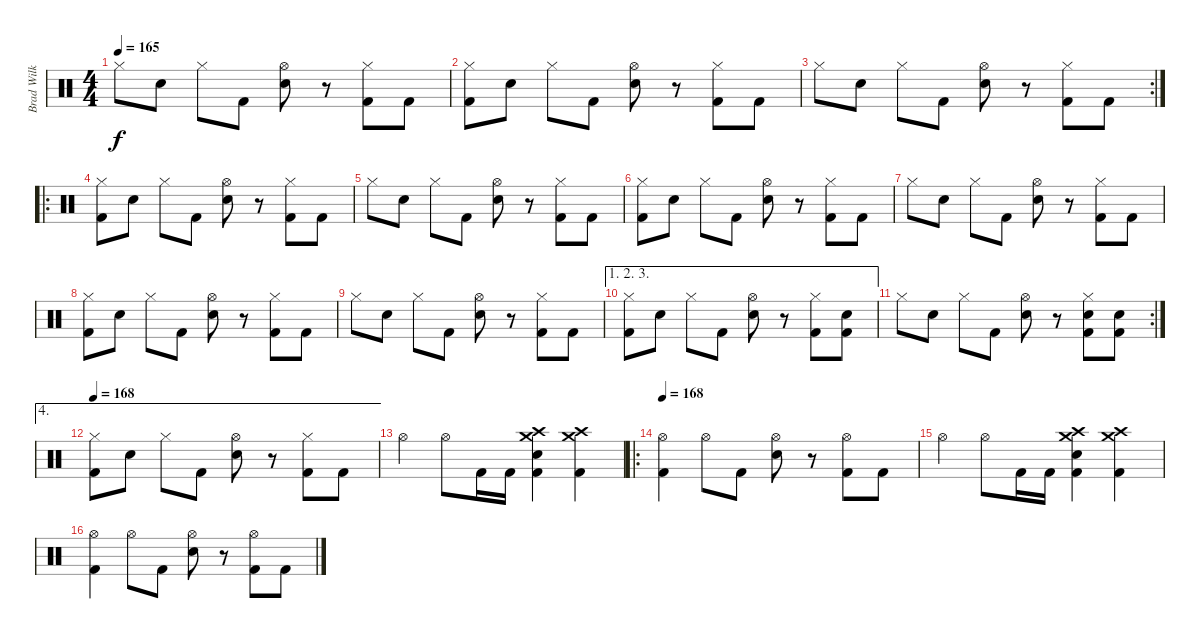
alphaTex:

\track ("Brad Wilk" "Brad Wilk") {instrument percussion}
\staff {score}
\articulation defaults
\ts (4 4)
\tempo 165
\clef neutral
\ks c "Hi-Hat (closed)".8{dy f} "Electric Snare (hit)".8 "Hi-Hat (closed)".8 "Kick (hit) 2".8
("Hi-Hat (open)" "Electric Snare (hit)").8 r.8 ("Hi-Hat (closed)" "Kick (hit) 2").8 "Kick (hit) 2".8 |
("Hi-Hat (closed)" "Kick (hit) 2").8 "Electric Snare (hit)".8 "Hi-Hat (closed)".8 "Kick (hit) 2".8 ("Hi-Hat (open)" "Electric Snare (hit)").8 r.8 ("Hi-Hat (closed)" "Kick (hit) 2").8 "Kick (hit) 2".8 |
\rc 2 "Hi-Hat (closed)".8 "Electric Snare (hit)".8 "Hi-Hat (closed)".8 "Kick (hit) 2".8
("Hi-Hat (open)" "Electric Snare (hit)").8 r.8 ("Hi-Hat (closed)" "Kick (hit) 2").8 "Kick (hit) 2".8 |
\ro
("Hi-Hat (closed)" "Kick (hit) 2").8 "Electric Snare (hit)".8 "Hi-Hat (closed)".8 "Kick (hit) 2".8 ("Hi-Hat (open)" "Electric Snare (hit)").8 r.8 ("Hi-Hat (closed)" "Kick (hit) 2").8 "Kick (hit) 2".8 |
"Hi-Hat (closed)".8 "Electric Snare (hit)".8 "Hi-Hat (closed)".8 "Kick (hit) 2".8 ("Hi-Hat (open)" "Electric Snare (hit)").8 r.8 ("Hi-Hat (closed)" "Kick (hit) 2").8 "Kick (hit) 2".8 |
("Hi-Hat (closed)" "Kick (hit) 2").8 "Electric Snare (hit)".8 "Hi-Hat (closed)".8 "Kick (hit) 2".8 ("Hi-Hat (open)" "Electric Snare (hit)").8 r.8 ("Hi-Hat (closed)" "Kick (hit) 2").8 "Kick (hit) 2".8 |
"Hi-Hat (closed)".8 "Electric Snare (hit)".8 "Hi-Hat (closed)".8 "Kick (hit) 2".8 ("Hi-Hat (open)" "Electric Snare (hit)").8 r.8 ("Hi-Hat (closed)" "Kick (hit) 2").8 "Kick (hit) 2".8 |
("Hi-Hat (closed)" "Kick (hit) 2").8 "Electric Snare (hit)".8 "Hi-Hat (closed)".8 "Kick (hit) 2".8 ("Hi-Hat (open)" "Electric Snare (hit)").8 r.8 ("Hi-Hat (closed)" "Kick (hit) 2").8 "Kick (hit) 2".8 |
"Hi-Hat (closed)".8 "Electric Snare (hit)".8 "Hi-Hat (closed)".8 "Kick (hit) 2".8 ("Hi-Hat (open)" "Electric Snare (hit)").8 r.8 ("Hi-Hat (closed)" "Kick (hit) 2").8 "Kick (hit) 2".8 |
\ae (1 2 3)
("Hi-Hat (closed)" "Kick (hit) 2").8 "Electric Snare (hit)".8 "Hi-Hat (closed)".8 "Kick (hit) 2".8 ("Hi-Hat (open)" "Electric Snare (hit)").8 r.8 ("Hi-Hat (closed)" "Kick (hit) 2").8 ("Electric Snare (hit)" "Kick (hit) 2").8 |
\rc 2 "Hi-Hat (closed)".8 "Electric Snare (hit)".8 "Hi-Hat (closed)".8 "Kick (hit) 2".8
("Hi-Hat (open)" "Electric Snare (hit)").8 r.8 ("Hi-Hat (closed)" "Electric Snare (hit)" "Kick (hit) 2").8 ("Electric Snare (hit)" "Kick (hit) 2").8 |
\ae 4
\tempo 168
("Hi-Hat (closed)" "Kick (hit) 2").8 "Electric Snare (hit)".8 "Hi-Hat (closed)".8 "Kick (hit) 2".8 ("Hi-Hat (open)" "Electric Snare (hit)").8 r.8 ("Hi-Hat (closed)" "Kick (hit) 2").8 "Kick (hit) 2".8 |
"Hi-Hat (open)".4 "Hi-Hat (open)".8 "Kick (hit) 2".16 "Kick (hit) 2".16 ("Crash medium (hit)" "Crash high (hit)" "Electric Snare (hit)" "Kick (hit) 2").4 ("Crash high (hit)" "Crash medium (hit)" "Kick (hit) 2").4 |
\ro
\tempo 168
("Hi-Hat (open)" "Kick (hit) 2").4 "Hi-Hat (open)".8 "Kick (hit) 2".8 ("Hi-Hat (open)" "Electric Snare (hit)").8 r.8 ("Hi-Hat (open)" "Kick (hit) 2").8 "Kick (hit) 2".8 |
"Hi-Hat (open)".4 "Hi-Hat (open)".8 "Kick (hit) 2".16 "Kick (hit) 2".16 ("Crash medium (hit)" "Crash high (hit)" "Electric Snare (hit)" "Kick (hit) 2").4 ("Crash high (hit)" "Crash medium (hit)" "Kick (hit) 2").4 |
("Hi-Hat (open)" "Kick (hit) 2").4 "Hi-Hat (open)".8 "Kick (hit) 2".8 ("Hi-Hat (open)" "Electric Snare (hit)").8 r.8 ("Hi-Hat (open)" "Kick (hit) 2").8 "Kick (hit) 2".8
